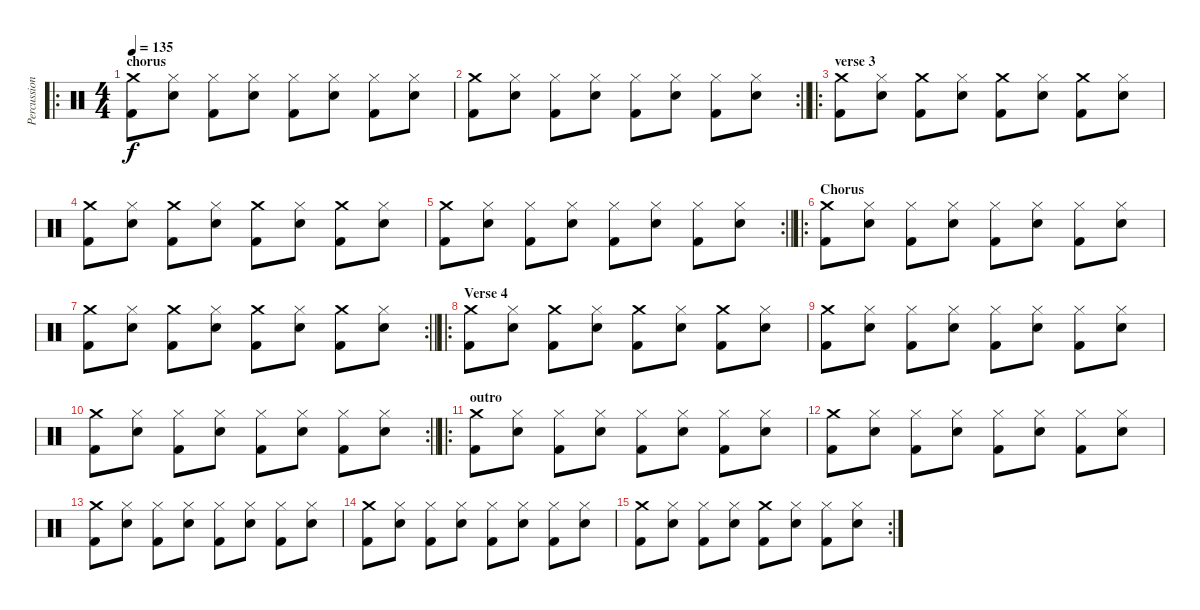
\track ("Percussion" "Percussion") {instrument percussion}
\staff {score}
\articulation defaults
\ro
\ts (4 4)
\section ("" "chorus")
\tempo 135
\clef neutral
\ks c
("Crash medium (hit)" "Kick (hit) 2").8{dy f} ("Snare (hit) 2" "Hi-Hat (closed)").8 ("Hi-Hat (closed)" "Kick (hit) 2").8 ("Snare (hit) 2" "Hi-Hat (closed)").8 ("Hi-Hat (closed)" "Kick (hit) 2").8 ("Snare (hit) 2" "Hi-Hat (closed)").8 ("Hi-Hat (closed)" "Kick (hit) 2").8 ("Snare (hit) 2" "Hi-Hat (closed)").8 |
\rc 2
\barLineRight lightlight
("Crash medium (hit)" "Kick (hit) 2").8 ("Snare (hit) 2" "Hi-Hat (closed)").8 ("Hi-Hat (closed)" "Kick (hit) 2").8 ("Snare (hit) 2" "Hi-Hat (closed)").8 ("Hi-Hat (closed)" "Kick (hit) 2").8 ("Snare (hit) 2" "Hi-Hat (closed)").8 ("Hi-Hat (closed)" "Kick (hit) 2").8 ("Snare (hit) 2" "Hi-Hat (closed)").8 |
\ro
\section ("" "verse 3")
("Crash medium (hit)" "Kick (hit) 2").8 ("Snare (hit) 2" "Hi-Hat (closed)").8 ("Crash medium (hit)" "Kick (hit) 2").8 ("Snare (hit) 2" "Hi-Hat (closed)").8 ("Crash medium (hit)" "Kick (hit) 2").8 ("Snare (hit) 2" "Hi-Hat (closed)").8 ("Crash medium (hit)" "Kick (hit) 2").8 ("Snare (hit) 2" "Hi-Hat (closed)").8 |
("Crash medium (hit)" "Kick (hit) 2").8 ("Snare (hit) 2" "Hi-Hat (closed)").8 ("Crash medium (hit)" "Kick (hit) 2").8 ("Snare (hit) 2" "Hi-Hat (closed)").8 ("Crash medium (hit)" "Kick (hit) 2").8 ("Snare (hit) 2" "Hi-Hat (closed)").8 ("Crash medium (hit)" "Kick (hit) 2").8 ("Snare (hit) 2" "Hi-Hat (closed)").8 |
\rc 2
\barLineRight lightlight
("Crash medium (hit)" "Kick (hit) 2").8 ("Snare (hit) 2" "Hi-Hat (closed)").8 ("Hi-Hat (closed)" "Kick (hit) 2").8 ("Snare (hit) 2" "Hi-Hat (closed)").8 ("Hi-Hat (closed)" "Kick (hit) 2").8 ("Snare (hit) 2" "Hi-Hat (closed)").8 ("Hi-Hat (closed)" "Kick (hit) 2").8 ("Snare (hit) 2" "Hi-Hat (closed)").8 |
\ro
\section ("" "Chorus")
("Crash medium (hit)" "Kick (hit) 2").8 ("Snare (hit) 2" "Hi-Hat (closed)").8 ("Hi-Hat (closed)" "Kick (hit) 2").8 ("Snare (hit) 2" "Hi-Hat (closed)").8 ("Hi-Hat (closed)" "Kick (hit) 2").8 ("Snare (hit) 2" "Hi-Hat (closed)").8 ("Hi-Hat (closed)" "Kick (hit) 2").8 ("Snare (hit) 2" "Hi-Hat (closed)").8 |
\rc 2
\barLineRight lightlight
("Crash medium (hit)" "Kick (hit) 2").8 ("Snare (hit) 2" "Hi-Hat (closed)").8 ("Crash medium (hit)" "Kick (hit) 2").8 ("Snare (hit) 2" "Hi-Hat (closed)").8 ("Crash medium (hit)" "Kick (hit) 2").8 ("Snare (hit) 2" "Hi-Hat (closed)").8 ("Crash medium (hit)" "Kick (hit) 2").8 ("Snare (hit) 2" "Hi-Hat (closed)").8 |
\ro
\section ("" "Verse 4")
("Crash medium (hit)" "Kick (hit) 2").8 ("Snare (hit) 2" "Hi-Hat (closed)").8 ("Crash medium (hit)" "Kick (hit) 2").8 ("Snare (hit) 2" "Hi-Hat (closed)").8 ("Crash medium (hit)" "Kick (hit) 2").8 ("Snare (hit) 2" "Hi-Hat (closed)").8 ("Crash medium (hit)" "Kick (hit) 2").8 ("Snare (hit) 2" "Hi-Hat (closed)").8 |
("Crash medium (hit)" "Kick (hit) 2").8 ("Snare (hit) 2" "Hi-Hat (closed)").8 ("Hi-Hat (closed)" "Kick (hit) 2").8 ("Snare (hit) 2" "Hi-Hat (closed)").8 ("Hi-Hat (closed)" "Kick (hit) 2").8 ("Snare (hit) 2" "Hi-Hat (closed)").8 ("Hi-Hat (closed)" "Kick (hit) 2").8 ("Snare (hit) 2" "Hi-Hat (closed)").8 |
\rc 2
\barLineRight lightlight
("Crash medium (hit)" "Kick (hit) 2").8 ("Snare (hit) 2" "Hi-Hat (closed)").8 ("Hi-Hat (closed)" "Kick (hit) 2").8 ("Snare (hit) 2" "Hi-Hat (closed)").8 ("Hi-Hat (closed)" "Kick (hit) 2").8 ("Snare (hit) 2" "Hi-Hat (closed)").8 ("Hi-Hat (closed)" "Kick (hit) 2").8 ("Snare (hit) 2" "Hi-Hat (closed)").8 |
\ro
\section ("" "outro")
("Crash medium (hit)" "Kick (hit) 2").8 ("Snare (hit) 2" "Hi-Hat (closed)").8 ("Hi-Hat (closed)" "Kick (hit) 2").8 ("Snare (hit) 2" "Hi-Hat (closed)").8 ("Hi-Hat (closed)" "Kick (hit) 2").8 ("Snare (hit) 2" "Hi-Hat (closed)").8 ("Hi-Hat (closed)" "Kick (hit) 2").8 ("Snare (hit) 2" "Hi-Hat (closed)").8 |
("Crash medium (hit)" "Kick (hit) 2").8 ("Snare (hit) 2" "Hi-Hat (closed)").8 ("Hi-Hat (closed)" "Kick (hit) 2").8 ("Snare (hit) 2" "Hi-Hat (closed)").8 ("Hi-Hat (closed)" "Kick (hit) 2").8 ("Snare (hit) 2" "Hi-Hat (closed)").8 ("Hi-Hat (closed)" "Kick (hit) 2").8 ("Snare (hit) 2" "Hi-Hat (closed)").8 |
("Crash medium (hit)" "Kick (hit) 2").8 ("Snare (hit) 2" "Hi-Hat (closed)").8 ("Hi-Hat (closed)" "Kick (hit) 2").8 ("Snare (hit) 2" "Hi-Hat (closed)").8 ("Hi-Hat (closed)" "Kick (hit) 2").8 ("Snare (hit) 2" "Hi-Hat (closed)").8 ("Hi-Hat (closed)" "Kick (hit) 2").8 ("Snare (hit) 2" "Hi-Hat (closed)").8 |
("Crash medium (hit)" "Kick (hit) 2").8 ("Snare (hit) 2" "Hi-Hat (closed)").8 ("Hi-Hat (closed)" "Kick (hit) 2").8 ("Snare (hit) 2" "Hi-Hat (closed)").8 ("Hi-Hat (closed)" "Kick (hit) 2").8 ("Snare (hit) 2" "Hi-Hat (closed)").8 ("Hi-Hat (closed)" "Kick (hit) 2").8 ("Snare (hit) 2" "Hi-Hat (closed)").8 |
\rc 2
("Crash medium (hit)" "Kick (hit) 2").8 ("Snare (hit) 2" "Hi-Hat (closed)").8 ("Hi-Hat (closed)" "Kick (hit) 2").8 ("Snare (hit) 2" "Hi-Hat (closed)").8 ("Crash medium (hit)" "Kick (hit) 2").8 ("Snare (hit) 2" "Hi-Hat (closed)").8 ("Hi-Hat (closed)" "Kick (hit) 2").8 ("Snare (hit) 2" "Hi-Hat (closed)").8
